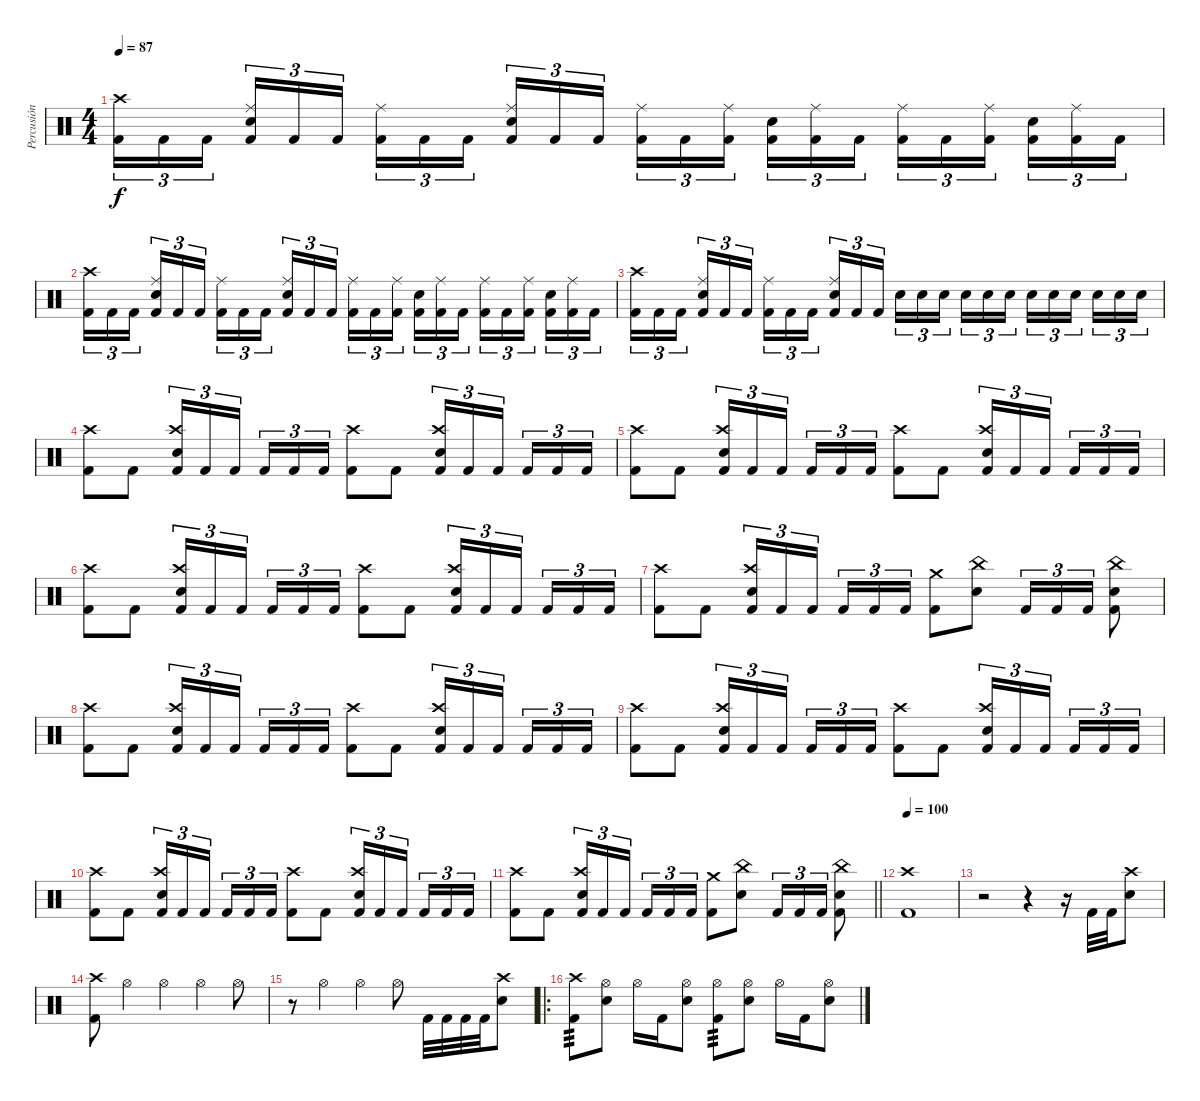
\track ("Percusión" "Percusión") {instrument percussion}
\staff
\articulation defaults
\ts (4 4)
\tempo 87
\clef neutral
\ks c
("Kick (hit) 2" "Crash high (hit)").16{tu (3 2) dy f} "Kick (hit) 2".16{tu (3 2)} "Kick (hit) 2".16{tu (3 2) beam splitsecondary} ("Kick (hit) 2" "Ride (middle)" "Electric Snare (hit)").16{tu (3 2)} "Kick (hit) 2".16{tu (3 2)} "Kick (hit) 2".16{tu (3 2)} ("Kick (hit) 2" "Ride (middle)").16{tu (3 2)} "Kick (hit) 2".16{tu (3 2)} "Kick (hit) 2".16{tu (3 2) beam splitsecondary} ("Kick (hit) 2" "Ride (middle)" "Electric Snare (hit)").16{tu (3 2)} "Kick (hit) 2".16{tu (3 2)} "Kick (hit) 2".16{tu (3 2)} ("Kick (hit) 2" "Ride (middle)").16{tu (3 2)} "Kick (hit) 2".16{tu (3 2)} ("Kick (hit) 2" "Ride (middle)").16{tu (3 2) beam splitsecondary} ("Kick (hit) 2" "Electric Snare (hit)").16{tu (3 2)} ("Kick (hit) 2" "Ride (middle)").16{tu (3 2)} "Kick (hit) 2".16{tu (3 2)} ("Kick (hit) 2" "Ride (middle)").16{tu (3 2)} "Kick (hit) 2".16{tu (3 2)} ("Kick (hit) 2" "Ride (middle)").16{tu (3 2) beam splitsecondary} ("Kick (hit) 2" "Electric Snare (hit)").16{tu (3 2)} ("Kick (hit) 2" "Ride (middle)").16{tu (3 2)} "Kick (hit) 2".16{tu (3 2)} |
("Kick (hit) 2" "Crash high (hit)").16{tu (3 2)} "Kick (hit) 2".16{tu (3 2)} "Kick (hit) 2".16{tu (3 2) beam splitsecondary} ("Kick (hit) 2" "Ride (middle)" "Electric Snare (hit)").16{tu (3 2)} "Kick (hit) 2".16{tu (3 2)} "Kick (hit) 2".16{tu (3 2)} ("Kick (hit) 2" "Ride (middle)").16{tu (3 2)} "Kick (hit) 2".16{tu (3 2)} "Kick (hit) 2".16{tu (3 2) beam splitsecondary} ("Kick (hit) 2" "Ride (middle)" "Electric Snare (hit)").16{tu (3 2)} "Kick (hit) 2".16{tu (3 2)} "Kick (hit) 2".16{tu (3 2)} ("Kick (hit) 2" "Ride (middle)").16{tu (3 2)} "Kick (hit) 2".16{tu (3 2)} ("Kick (hit) 2" "Ride (middle)").16{tu (3 2) beam splitsecondary} ("Kick (hit) 2" "Electric Snare (hit)").16{tu (3 2)} ("Kick (hit) 2" "Ride (middle)").16{tu (3 2)} "Kick (hit) 2".16{tu (3 2)} ("Kick (hit) 2" "Ride (middle)").16{tu (3 2)} "Kick (hit) 2".16{tu (3 2)} ("Kick (hit) 2" "Ride (middle)").16{tu (3 2) beam splitsecondary} ("Kick (hit) 2" "Electric Snare (hit)").16{tu (3 2)} ("Kick (hit) 2" "Ride (middle)").16{tu (3 2)} "Kick (hit) 2".16{tu (3 2)} |
("Kick (hit) 2" "Crash high (hit)").16{tu (3 2)} "Kick (hit) 2".16{tu (3 2)} "Kick (hit) 2".16{tu (3 2) beam splitsecondary} ("Kick (hit) 2" "Ride (middle)" "Electric Snare (hit)").16{tu (3 2)} "Kick (hit) 2".16{tu (3 2)} "Kick (hit) 2".16{tu (3 2)} ("Kick (hit) 2" "Ride (middle)").16{tu (3 2)} "Kick (hit) 2".16{tu (3 2)} "Kick (hit) 2".16{tu (3 2) beam splitsecondary} ("Kick (hit) 2" "Ride (middle)" "Electric Snare (hit)").16{tu (3 2)} "Kick (hit) 2".16{tu (3 2)} "Kick (hit) 2".16{tu (3 2)} "Snare (hit) 2".16{tu (3 2)} "Snare (hit) 2".16{tu (3 2)} "Electric Snare (hit)".16{tu (3 2) beam splitsecondary} "Electric Snare (hit)".16{tu (3 2)} "Electric Snare (hit)".16{tu (3 2)} "Electric Snare (hit)".16{tu (3 2)} "Electric Snare (hit)".16{tu (3 2)} "Electric Snare (hit)".16{tu (3 2)} "Electric Snare (hit)".16{tu (3 2) beam splitsecondary} "Electric Snare (hit)".16{tu (3 2)} "Electric Snare (hit)".16{tu (3 2)} "Electric Snare (hit)".16{tu (3 2)} |
("Kick (hit) 2" "Crash high (hit)").8 "Kick (hit) 2".8 ("Kick (hit) 2" "Crash high (hit)" "Electric Snare (hit)").16{tu (3 2)} "Kick (hit) 2".16{tu (3 2)} "Kick (hit) 2".16{tu (3 2) beam splitsecondary} "Kick (hit) 2".16{tu (3 2)} "Kick (hit) 2".16{tu (3 2)} "Kick (hit) 2".16{tu (3 2)} ("Kick (hit) 2" "Crash high (hit)").8 "Kick (hit) 2".8 ("Kick (hit) 2" "Crash high (hit)" "Electric Snare (hit)").16{tu (3 2)} "Kick (hit) 2".16{tu (3 2)} "Kick (hit) 2".16{tu (3 2) beam splitsecondary} "Kick (hit) 2".16{tu (3 2)} "Kick (hit) 2".16{tu (3 2)} "Kick (hit) 2".16{tu (3 2)} |
("Kick (hit) 2" "Crash high (hit)").8 "Kick (hit) 2".8 ("Kick (hit) 2" "Crash high (hit)" "Electric Snare (hit)").16{tu (3 2)} "Kick (hit) 2".16{tu (3 2)} "Kick (hit) 2".16{tu (3 2) beam splitsecondary} "Kick (hit) 2".16{tu (3 2)} "Kick (hit) 2".16{tu (3 2)} "Kick (hit) 2".16{tu (3 2)} ("Kick (hit) 2" "Crash high (hit)").8 "Kick (hit) 2".8 ("Kick (hit) 2" "Crash high (hit)" "Electric Snare (hit)").16{tu (3 2)} "Kick (hit) 2".16{tu (3 2)} "Kick (hit) 2".16{tu (3 2) beam splitsecondary} "Kick (hit) 2".16{tu (3 2)} "Kick (hit) 2".16{tu (3 2)} "Kick (hit) 2".16{tu (3 2)} |
("Kick (hit) 2" "Crash high (hit)").8 "Kick (hit) 2".8 ("Kick (hit) 2" "Crash high (hit)" "Electric Snare (hit)").16{tu (3 2)} "Kick (hit) 2".16{tu (3 2)} "Kick (hit) 2".16{tu (3 2) beam splitsecondary} "Kick (hit) 2".16{tu (3 2)} "Kick (hit) 2".16{tu (3 2)} "Kick (hit) 2".16{tu (3 2)} ("Kick (hit) 2" "Crash high (hit)").8 "Kick (hit) 2".8 ("Kick (hit) 2" "Crash high (hit)" "Electric Snare (hit)").16{tu (3 2)} "Kick (hit) 2".16{tu (3 2)} "Kick (hit) 2".16{tu (3 2) beam splitsecondary} "Kick (hit) 2".16{tu (3 2)} "Kick (hit) 2".16{tu (3 2)} "Kick (hit) 2".16{tu (3 2)} |
("Kick (hit) 2" "Crash high (hit)").8 "Kick (hit) 2".8 ("Kick (hit) 2" "Crash high (hit)" "Electric Snare (hit)").16{tu (3 2)} "Kick (hit) 2".16{tu (3 2)} "Kick (hit) 2".16{tu (3 2) beam splitsecondary} "Kick (hit) 2".16{tu (3 2)} "Kick (hit) 2".16{tu (3 2)} "Kick (hit) 2".16{tu (3 2)} ("Kick (hit) 2" "Crash medium (hit)").8 ("China (hit)" "Electric Snare (hit)").8 "Kick (hit) 2".16{tu (3 2)} "Kick (hit) 2".16{tu (3 2)} "Kick (hit) 2".16{tu (3 2)} ("Kick (hit) 2" "China (hit)" "Electric Snare (hit)").8 |
("Kick (hit) 2" "Crash high (hit)").8 "Kick (hit) 2".8 ("Kick (hit) 2" "Crash high (hit)" "Electric Snare (hit)").16{tu (3 2)} "Kick (hit) 2".16{tu (3 2)} "Kick (hit) 2".16{tu (3 2) beam splitsecondary} "Kick (hit) 2".16{tu (3 2)} "Kick (hit) 2".16{tu (3 2)} "Kick (hit) 2".16{tu (3 2)} ("Kick (hit) 2" "Crash high (hit)").8 "Kick (hit) 2".8 ("Kick (hit) 2" "Crash high (hit)" "Electric Snare (hit)").16{tu (3 2)} "Kick (hit) 2".16{tu (3 2)} "Kick (hit) 2".16{tu (3 2) beam splitsecondary} "Kick (hit) 2".16{tu (3 2)} "Kick (hit) 2".16{tu (3 2)} "Kick (hit) 2".16{tu (3 2)} |
("Kick (hit) 2" "Crash high (hit)").8 "Kick (hit) 2".8 ("Kick (hit) 2" "Crash high (hit)" "Electric Snare (hit)").16{tu (3 2)} "Kick (hit) 2".16{tu (3 2)} "Kick (hit) 2".16{tu (3 2) beam splitsecondary} "Kick (hit) 2".16{tu (3 2)} "Kick (hit) 2".16{tu (3 2)} "Kick (hit) 2".16{tu (3 2)} ("Kick (hit) 2" "Crash high (hit)").8 "Kick (hit) 2".8 ("Kick (hit) 2" "Crash high (hit)" "Electric Snare (hit)").16{tu (3 2)} "Kick (hit) 2".16{tu (3 2)} "Kick (hit) 2".16{tu (3 2) beam splitsecondary} "Kick (hit) 2".16{tu (3 2)} "Kick (hit) 2".16{tu (3 2)} "Kick (hit) 2".16{tu (3 2)} |
("Kick (hit) 2" "Crash high (hit)").8 "Kick (hit) 2".8 ("Kick (hit) 2" "Crash high (hit)" "Electric Snare (hit)").16{tu (3 2)} "Kick (hit) 2".16{tu (3 2)} "Kick (hit) 2".16{tu (3 2) beam splitsecondary} "Kick (hit) 2".16{tu (3 2)} "Kick (hit) 2".16{tu (3 2)} "Kick (hit) 2".16{tu (3 2)} ("Kick (hit) 2" "Crash high (hit)").8 "Kick (hit) 2".8 ("Kick (hit) 2" "Crash high (hit)" "Electric Snare (hit)").16{tu (3 2)} "Kick (hit) 2".16{tu (3 2)} "Kick (hit) 2".16{tu (3 2) beam splitsecondary} "Kick (hit) 2".16{tu (3 2)} "Kick (hit) 2".16{tu (3 2)} "Kick (hit) 2".16{tu (3 2)} |
\barLineRight lightlight
("Kick (hit) 2" "Crash high (hit)").8 "Kick (hit) 2".8 ("Kick (hit) 2" "Crash high (hit)" "Electric Snare (hit)").16{tu (3 2)} "Kick (hit) 2".16{tu (3 2)} "Kick (hit) 2".16{tu (3 2) beam splitsecondary} "Kick (hit) 2".16{tu (3 2)} "Kick (hit) 2".16{tu (3 2)} "Kick (hit) 2".16{tu (3 2)} ("Kick (hit) 2" "Crash medium (hit)").8 ("China (hit)" "Electric Snare (hit)").8 "Kick (hit) 2".16{tu (3 2)} "Kick (hit) 2".16{tu (3 2)} "Kick (hit) 2".16{tu (3 2)} ("Kick (hit) 2" "China (hit)" "Electric Snare (hit)").8 |
\section ("" "")
\tempo 100
("Kick (hit) 2" "Crash high (hit)").1 |
r.2 r.4 r.16 "Kick (hit) 2".32 "Kick (hit) 2".32 ("Crash high (hit)" "Electric Snare (hit)").8 |
("Kick (hit) 2" "Crash high (hit)").8 "Hi-Hat (open)".4 "Hi-Hat (open)".4 "Hi-Hat (open)".4 "Hi-Hat (open)".8 |
r.8 "Hi-Hat (open)".4 "Hi-Hat (open)".4 "Hi-Hat (open)".8 "Kick (hit) 2".32 "Kick (hit) 2".32 "Kick (hit) 2".32 "Kick (hit) 2".32 ("Crash high (hit)" "Electric Snare (hit)").8 |
\ro
("Kick (hit) 2" "Crash high (hit)").8{tp 3} ("Hi-Hat (open)" "Electric Snare (hit)").8 "Hi-Hat (open)".16 "Kick (hit) 2".16 ("Hi-Hat (open)" "Electric Snare (hit)").8 ("Kick (hit) 2" "Hi-Hat (open)").8{tp 3} ("Hi-Hat (open)" "Electric Snare (hit)").8 "Hi-Hat (open)".16 "Kick (hit) 2".16 ("Hi-Hat (open)" "Electric Snare (hit)").8
